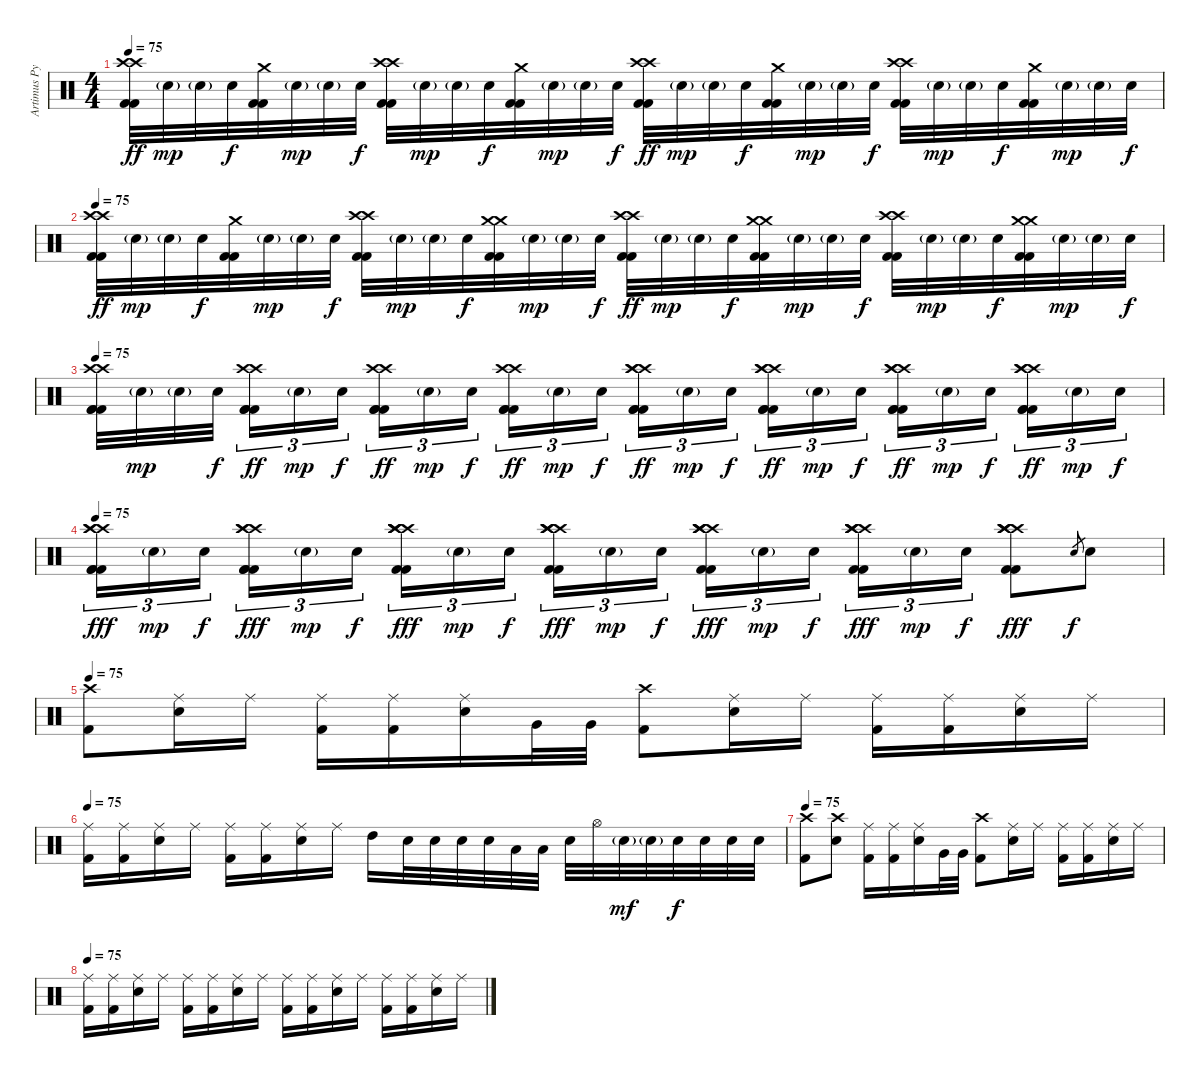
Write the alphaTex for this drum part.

\track ("Artimus Pyle (drums)" "Artimus Py") {instrument percussion}
\staff {score}
\articulation defaults
\ts (4 4)
\tempo 75
\clef neutral
\ks c
("Crash high (hit)" "Crash high (hit)" "Kick (hit) 2" "Kick (hit) 2").32{dy ff} "Electric Snare (hit)"{g}.32{dy mp} "Electric Snare (hit)"{g}.32 "Electric Snare (hit)".32{dy f} ("Crash medium (hit)" "Kick (hit) 2" "Kick (hit) 2").32 "Electric Snare (hit)"{g}.32{dy mp} "Electric Snare (hit)"{g}.32 "Electric Snare (hit)".32{dy f} ("Crash high (hit)" "Crash high (hit)" "Kick (hit) 2" "Kick (hit) 2").32 "Electric Snare (hit)"{g}.32{dy mp} "Electric Snare (hit)"{g}.32 "Electric Snare (hit)".32{dy f} ("Crash medium (hit)" "Kick (hit) 2" "Kick (hit) 2").32 "Electric Snare (hit)"{g}.32{dy mp} "Electric Snare (hit)"{g}.32 "Electric Snare (hit)".32{dy f} ("Crash high (hit)" "Crash high (hit)" "Kick (hit) 2" "Kick (hit) 2").32{dy ff} "Electric Snare (hit)"{g}.32{dy mp} "Electric Snare (hit)"{g}.32 "Electric Snare (hit)".32{dy f} ("Crash medium (hit)" "Kick (hit) 2" "Kick (hit) 2").32 "Electric Snare (hit)"{g}.32{dy mp} "Electric Snare (hit)"{g}.32 "Electric Snare (hit)".32{dy f} ("Crash high (hit)" "Crash high (hit)" "Kick (hit) 2" "Kick (hit) 2").32 "Electric Snare (hit)"{g}.32{dy mp} "Electric Snare (hit)"{g}.32 "Electric Snare (hit)".32{dy f} ("Crash medium (hit)" "Kick (hit) 2" "Kick (hit) 2").32 "Electric Snare (hit)"{g}.32{dy mp} "Electric Snare (hit)"{g}.32 "Electric Snare (hit)".32{dy f} |
\tempo 75
("Crash high (hit)" "Crash high (hit)" "Kick (hit) 2" "Kick (hit) 2").32{dy ff} "Electric Snare (hit)"{g}.32{dy mp} "Electric Snare (hit)"{g}.32 "Electric Snare (hit)".32{dy f} ("Crash medium (hit)" "Kick (hit) 2" "Kick (hit) 2").32 "Electric Snare (hit)"{g}.32{dy mp} "Electric Snare (hit)"{g}.32 "Electric Snare (hit)".32{dy f} ("Crash high (hit)" "Crash high (hit)" "Kick (hit) 2" "Kick (hit) 2").32 "Electric Snare (hit)"{g}.32{dy mp} "Electric Snare (hit)"{g}.32 "Electric Snare (hit)".32{dy f} ("Crash medium (hit)" "Crash medium (hit)" "Kick (hit) 2" "Kick (hit) 2").32 "Electric Snare (hit)"{g}.32{dy mp} "Electric Snare (hit)"{g}.32 "Electric Snare (hit)".32{dy f} ("Crash high (hit)" "Crash high (hit)" "Kick (hit) 2" "Kick (hit) 2").32{dy ff} "Electric Snare (hit)"{g}.32{dy mp} "Electric Snare (hit)"{g}.32 "Electric Snare (hit)".32{dy f} ("Crash medium (hit)" "Crash medium (hit)" "Kick (hit) 2" "Kick (hit) 2").32 "Electric Snare (hit)"{g}.32{dy mp} "Electric Snare (hit)"{g}.32 "Electric Snare (hit)".32{dy f} ("Crash high (hit)" "Crash high (hit)" "Kick (hit) 2" "Kick (hit) 2").32 "Electric Snare (hit)"{g}.32{dy mp} "Electric Snare (hit)"{g}.32 "Electric Snare (hit)".32{dy f} ("Crash medium (hit)" "Crash medium (hit)" "Kick (hit) 2" "Kick (hit) 2").32 "Electric Snare (hit)"{g}.32{dy mp} "Electric Snare (hit)"{g}.32 "Electric Snare (hit)".32{dy f} |
\tempo 75
("Crash high (hit)" "Crash high (hit)" "Kick (hit) 2" "Kick (hit) 2" "Kick (hit) 2").32 "Electric Snare (hit)"{g}.32{dy mp} "Electric Snare (hit)"{g}.32 "Electric Snare (hit)".32{dy f} ("Crash high (hit)" "Crash high (hit)" "Kick (hit) 2" "Kick (hit) 2" "Kick (hit) 2").16{tu (3 2) dy ff} "Electric Snare (hit)"{g}.16{tu (3 2) dy mp} "Electric Snare (hit)".16{tu (3 2) dy f} ("Crash high (hit)" "Crash high (hit)" "Kick (hit) 2" "Kick (hit) 2" "Kick (hit) 2").16{tu (3 2) dy ff} "Electric Snare (hit)"{g}.16{tu (3 2) dy mp} "Electric Snare (hit)".16{tu (3 2) dy f} ("Crash high (hit)" "Crash high (hit)" "Kick (hit) 2" "Kick (hit) 2" "Kick (hit) 2").16{tu (3 2) dy ff} "Electric Snare (hit)"{g}.16{tu (3 2) dy mp} "Electric Snare (hit)".16{tu (3 2) dy f} ("Crash high (hit)" "Crash high (hit)" "Crash high (hit)" "Kick (hit) 2" "Kick (hit) 2" "Kick (hit) 2").16{tu (3 2) dy ff} "Electric Snare (hit)"{g}.16{tu (3 2) dy mp} "Electric Snare (hit)".16{tu (3 2) dy f} ("Crash high (hit)" "Crash high (hit)" "Crash high (hit)" "Kick (hit) 2" "Kick (hit) 2" "Kick (hit) 2").16{tu (3 2) dy ff} "Electric Snare (hit)"{g}.16{tu (3 2) dy mp} "Electric Snare (hit)".16{tu (3 2) dy f} ("Crash high (hit)" "Crash high (hit)" "Crash high (hit)" "Kick (hit) 2" "Kick (hit) 2" "Kick (hit) 2").16{tu (3 2) dy ff} "Electric Snare (hit)"{g}.16{tu (3 2) dy mp} "Electric Snare (hit)".16{tu (3 2) dy f} ("Crash high (hit)" "Crash high (hit)" "Crash high (hit)" "Kick (hit) 2" "Kick (hit) 2" "Kick (hit) 2").16{tu (3 2) dy ff} "Electric Snare (hit)"{g}.16{tu (3 2) dy mp} "Electric Snare (hit)".16{tu (3 2) dy f} |
\tempo 75
("Crash high (hit)" "Crash high (hit)" "Crash high (hit)" "Kick (hit) 2" "Kick (hit) 2" "Kick (hit) 2").16{tu (3 2) dy fff} "Electric Snare (hit)"{g}.16{tu (3 2) dy mp} "Electric Snare (hit)".16{tu (3 2) dy f} ("Crash high (hit)" "Crash high (hit)" "Crash high (hit)" "Kick (hit) 2" "Kick (hit) 2" "Kick (hit) 2").16{tu (3 2) dy fff} "Electric Snare (hit)"{g}.16{tu (3 2) dy mp} "Electric Snare (hit)".16{tu (3 2) dy f} ("Crash high (hit)" "Crash high (hit)" "Crash high (hit)" "Crash high (hit)" "Kick (hit) 2" "Kick (hit) 2").16{tu (3 2) dy fff} "Electric Snare (hit)"{g}.16{tu (3 2) dy mp} "Electric Snare (hit)".16{tu (3 2) dy f} ("Crash high (hit)" "Crash high (hit)" "Crash high (hit)" "Crash high (hit)" "Kick (hit) 2" "Kick (hit) 2").16{tu (3 2) dy fff} "Electric Snare (hit)"{g}.16{tu (3 2) dy mp} "Electric Snare (hit)".16{tu (3 2) dy f} ("Crash high (hit)" "Crash high (hit)" "Crash high (hit)" "Crash high (hit)" "Kick (hit) 2" "Kick (hit) 2").16{tu (3 2) dy fff} "Electric Snare (hit)"{g}.16{tu (3 2) dy mp} "Electric Snare (hit)".16{tu (3 2) dy f} ("Crash high (hit)" "Crash high (hit)" "Crash high (hit)" "Crash high (hit)" "Kick (hit) 2" "Kick (hit) 2").16{tu (3 2) dy fff} "Electric Snare (hit)"{g}.16{tu (3 2) dy mp} "Electric Snare (hit)".16{tu (3 2) dy f} ("Crash high (hit)" "Crash high (hit)" "Crash high (hit)" "Crash high (hit)" "Kick (hit) 2" "Kick (hit) 2").8{dy fff} "Electric Snare (hit)".8{gr dy f} "Electric Snare (hit)".8 |
\tempo 75
("Crash high (hit)" "Kick (hit) 2").8 ("Ride (middle)" "Electric Snare (hit)").16 "Ride (middle)".16 ("Ride (middle)" "Kick (hit) 2").16 ("Ride (middle)" "Kick (hit) 2").16 ("Ride (middle)" "Electric Snare (hit)").16 "Very Low Tom (hit)".32 "Very Low Tom (hit)".32 ("Crash high (hit)" "Kick (hit) 2").8 ("Ride (middle)" "Electric Snare (hit)").16 "Ride (middle)".16 ("Ride (middle)" "Kick (hit) 2").16 ("Ride (middle)" "Kick (hit) 2").16 ("Ride (middle)" "Electric Snare (hit)").16 "Ride (middle)".16 |
\tempo 75
("Ride (middle)" "Kick (hit) 2").16 ("Ride (middle)" "Kick (hit) 2").16 ("Ride (middle)" "Electric Snare (hit)").16 "Ride (middle)".16 ("Ride (middle)" "Kick (hit) 2").16 ("Ride (middle)" "Kick (hit) 2").16 ("Ride (middle)" "Electric Snare (hit)").16 "Ride (middle)".16 "High Tom (hit)".16 "Electric Snare (hit)".32 "Electric Snare (hit)".32 "Electric Snare (hit)".32 "Electric Snare (hit)".32 "Low Tom (hit)".32 "Low Tom (hit)".32 "Electric Snare (hit)".32 "Hi-Hat (open)".32 "Electric Snare (hit)"{g}.32{dy mf} "Electric Snare (hit)"{g}.32 "Electric Snare (hit)".32{dy f} "Electric Snare (hit)".32 "Electric Snare (hit)".32 "Electric Snare (hit)".32 |
\tempo 75
("Crash high (hit)" "Kick (hit) 2").8 ("Crash high (hit)" "Electric Snare (hit)").8 ("Ride (middle)" "Kick (hit) 2").16 ("Ride (middle)" "Kick (hit) 2").16 ("Ride (middle)" "Electric Snare (hit)").16 "Very Low Tom (hit)".32 "Very Low Tom (hit)".32 ("Crash high (hit)" "Kick (hit) 2").8 ("Ride (middle)" "Electric Snare (hit)").16 "Ride (middle)".16 ("Ride (middle)" "Kick (hit) 2").16 ("Ride (middle)" "Kick (hit) 2").16 ("Ride (middle)" "Electric Snare (hit)").16 "Ride (middle)".16 |
\tempo 75
("Ride (middle)" "Kick (hit) 2").16 ("Ride (middle)" "Kick (hit) 2").16 ("Ride (middle)" "Electric Snare (hit)").16 "Ride (middle)".16 ("Ride (middle)" "Kick (hit) 2").16 ("Ride (middle)" "Kick (hit) 2").16 ("Ride (middle)" "Electric Snare (hit)").16 "Ride (middle)".16 ("Ride (middle)" "Kick (hit) 2").16 ("Ride (middle)" "Kick (hit) 2").16 ("Ride (middle)" "Electric Snare (hit)").16 "Ride (middle)".16 ("Ride (middle)" "Kick (hit) 2").16 ("Ride (middle)" "Kick (hit) 2").16 ("Ride (middle)" "Electric Snare (hit)").16 "Ride (middle)".16
